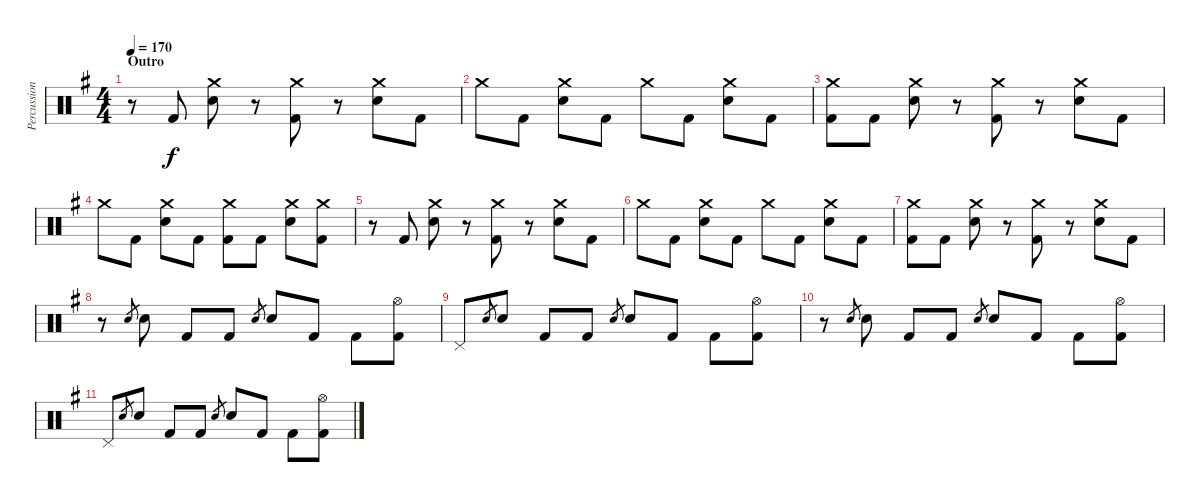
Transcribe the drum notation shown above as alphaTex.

\track ("Percussion" "Percussion") {instrument percussion}
\staff {score}
\articulation defaults
\ts (4 4)
\section ("" "Outro")
\tempo 170
\clef neutral
\ks g
r.8{dy f} "Kick (hit) 2".8 ("Crash medium (hit)" "Electric Snare (hit)").8 r.8 ("Crash medium (hit)" "Kick (hit) 2").8 r.8 ("Crash medium (hit)" "Electric Snare (hit)").8 "Kick (hit) 2".8 |
"Crash medium (hit)".8 "Kick (hit) 2".8 ("Crash medium (hit)" "Electric Snare (hit)").8 "Kick (hit) 2".8 "Crash medium (hit)".8 "Kick (hit) 2".8 ("Crash medium (hit)" "Electric Snare (hit)").8 "Kick (hit) 2".8 |
("Crash medium (hit)" "Kick (hit) 2").8 "Kick (hit) 2".8 ("Crash medium (hit)" "Electric Snare (hit)").8 r.8 ("Crash medium (hit)" "Kick (hit) 2").8 r.8 ("Crash medium (hit)" "Electric Snare (hit)").8 "Kick (hit) 2".8 |
"Crash medium (hit)".8 "Kick (hit) 2".8 ("Crash medium (hit)" "Electric Snare (hit)").8 "Kick (hit) 2".8 ("Crash medium (hit)" "Kick (hit) 2").8 "Kick (hit) 2".8 ("Crash medium (hit)" "Electric Snare (hit)").8 ("Crash medium (hit)" "Kick (hit) 2").8 |
r.8 "Kick (hit) 2".8 ("Crash medium (hit)" "Electric Snare (hit)").8 r.8 ("Crash medium (hit)" "Kick (hit) 2").8 r.8 ("Crash medium (hit)" "Electric Snare (hit)").8 "Kick (hit) 2".8 |
"Crash medium (hit)".8 "Kick (hit) 2".8 ("Crash medium (hit)" "Electric Snare (hit)").8 "Kick (hit) 2".8 "Crash medium (hit)".8 "Kick (hit) 2".8 ("Crash medium (hit)" "Electric Snare (hit)").8 "Kick (hit) 2".8 |
("Crash medium (hit)" "Kick (hit) 2").8 "Kick (hit) 2".8 ("Crash medium (hit)" "Electric Snare (hit)").8 r.8 ("Crash medium (hit)" "Kick (hit) 2").8 r.8 ("Crash medium (hit)" "Electric Snare (hit)").8 "Kick (hit) 2".8 |
r.8 "Electric Snare (hit)".8{gr} "Electric Snare (hit)".8 "Kick (hit) 2".8 "Kick (hit) 2".8 "Electric Snare (hit)".8{gr} "Electric Snare (hit)".8 "Kick (hit) 2".8 "Kick (hit) 2".8 ("Hi-Hat (open)" "Kick (hit) 2").8 |
"Pedal Hi-Hat (hit)".8 "Electric Snare (hit)".8{gr} "Electric Snare (hit)".8 "Kick (hit) 2".8 "Kick (hit) 2".8 "Electric Snare (hit)".8{gr} "Electric Snare (hit)".8 "Kick (hit) 2".8 "Kick (hit) 2".8 ("Hi-Hat (open)" "Kick (hit) 2").8 |
r.8 "Electric Snare (hit)".8{gr} "Electric Snare (hit)".8 "Kick (hit) 2".8 "Kick (hit) 2".8 "Electric Snare (hit)".8{gr} "Electric Snare (hit)".8 "Kick (hit) 2".8 "Kick (hit) 2".8 ("Hi-Hat (open)" "Kick (hit) 2").8 |
"Pedal Hi-Hat (hit)".8 "Electric Snare (hit)".8{gr} "Electric Snare (hit)".8 "Kick (hit) 2".8 "Kick (hit) 2".8 "Electric Snare (hit)".8{gr} "Electric Snare (hit)".8 "Kick (hit) 2".8 "Kick (hit) 2".8 ("Hi-Hat (open)" "Kick (hit) 2").8
